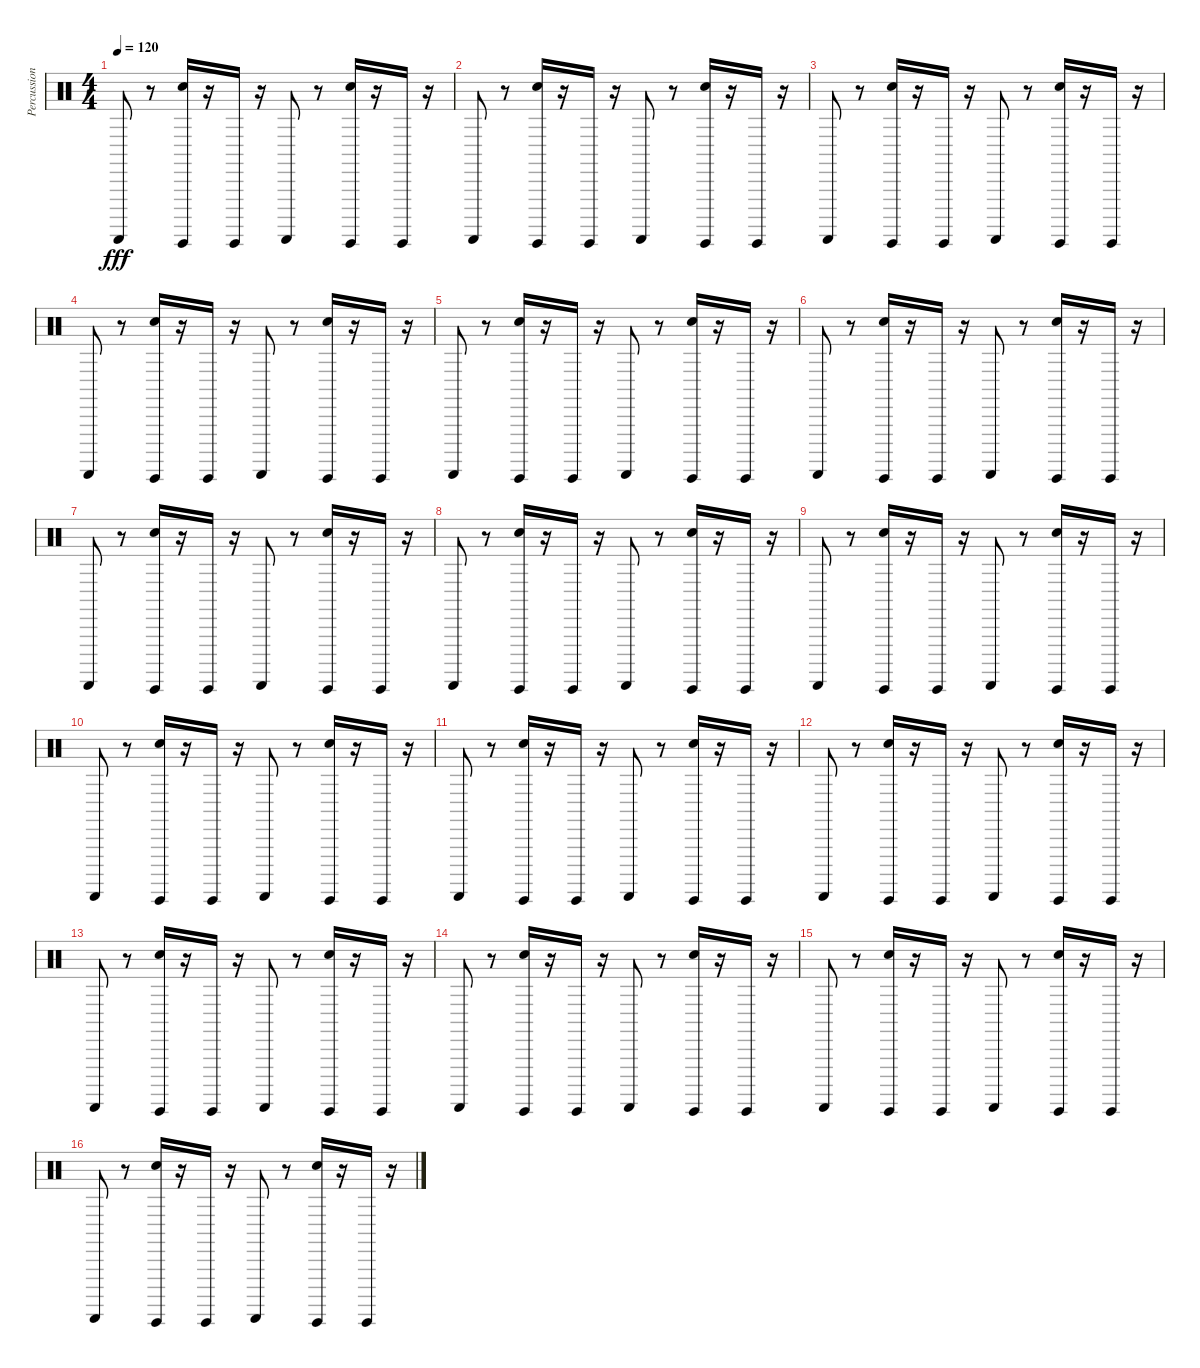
\track ("Percussions" "Percussion") {instrument percussion}
\staff {score}
\articulation defaults
\ts (4 4)
\tempo 120
\clef neutral
\ks c "Guiro (scrap-return)".8{dy fff}
r.8 ("Guiro (hit)" "Hand Clap (hit)").16 r.16 "Guiro (hit)".16 r.16 "Guiro (scrap-return)".8 r.8 ("Guiro (hit)" "Hand Clap (hit)").16 r.16 "Guiro (hit)".16 r.16 |
"Guiro (scrap-return)".8 r.8 ("Guiro (hit)" "Hand Clap (hit)").16 r.16 "Guiro (hit)".16 r.16 "Guiro (scrap-return)".8 r.8 ("Guiro (hit)" "Hand Clap (hit)").16 r.16 "Guiro (hit)".16 r.16 |
"Guiro (scrap-return)".8 r.8 ("Guiro (hit)" "Hand Clap (hit)").16 r.16 "Guiro (hit)".16 r.16 "Guiro (scrap-return)".8 r.8 ("Guiro (hit)" "Hand Clap (hit)").16 r.16 "Guiro (hit)".16 r.16 |
"Guiro (scrap-return)".8 r.8 ("Guiro (hit)" "Hand Clap (hit)").16 r.16 "Guiro (hit)".16 r.16 "Guiro (scrap-return)".8 r.8 ("Guiro (hit)" "Hand Clap (hit)").16 r.16 "Guiro (hit)".16 r.16 |
"Guiro (scrap-return)".8 r.8 ("Guiro (hit)" "Hand Clap (hit)").16 r.16 "Guiro (hit)".16 r.16 "Guiro (scrap-return)".8 r.8 ("Guiro (hit)" "Hand Clap (hit)").16 r.16 "Guiro (hit)".16 r.16 |
"Guiro (scrap-return)".8 r.8 ("Guiro (hit)" "Hand Clap (hit)").16 r.16 "Guiro (hit)".16 r.16 "Guiro (scrap-return)".8 r.8 ("Guiro (hit)" "Hand Clap (hit)").16 r.16 "Guiro (hit)".16 r.16 |
"Guiro (scrap-return)".8 r.8 ("Guiro (hit)" "Hand Clap (hit)").16 r.16 "Guiro (hit)".16 r.16 "Guiro (scrap-return)".8 r.8 ("Guiro (hit)" "Hand Clap (hit)").16 r.16 "Guiro (hit)".16 r.16 |
"Guiro (scrap-return)".8 r.8 ("Guiro (hit)" "Hand Clap (hit)").16 r.16 "Guiro (hit)".16 r.16 "Guiro (scrap-return)".8 r.8 ("Guiro (hit)" "Hand Clap (hit)").16 r.16 "Guiro (hit)".16 r.16 |
"Guiro (scrap-return)".8 r.8 ("Guiro (hit)" "Hand Clap (hit)").16 r.16 "Guiro (hit)".16 r.16 "Guiro (scrap-return)".8 r.8 ("Guiro (hit)" "Hand Clap (hit)").16 r.16 "Guiro (hit)".16 r.16 |
"Guiro (scrap-return)".8 r.8 ("Guiro (hit)" "Hand Clap (hit)").16 r.16 "Guiro (hit)".16 r.16 "Guiro (scrap-return)".8 r.8 ("Guiro (hit)" "Hand Clap (hit)").16 r.16 "Guiro (hit)".16 r.16 |
"Guiro (scrap-return)".8 r.8 ("Guiro (hit)" "Hand Clap (hit)").16 r.16 "Guiro (hit)".16 r.16 "Guiro (scrap-return)".8 r.8 ("Guiro (hit)" "Hand Clap (hit)").16 r.16 "Guiro (hit)".16 r.16 |
"Guiro (scrap-return)".8 r.8 ("Guiro (hit)" "Hand Clap (hit)").16 r.16 "Guiro (hit)".16 r.16 "Guiro (scrap-return)".8 r.8 ("Guiro (hit)" "Hand Clap (hit)").16 r.16 "Guiro (hit)".16 r.16 |
"Guiro (scrap-return)".8 r.8 ("Guiro (hit)" "Hand Clap (hit)").16 r.16 "Guiro (hit)".16 r.16 "Guiro (scrap-return)".8 r.8 ("Guiro (hit)" "Hand Clap (hit)").16 r.16 "Guiro (hit)".16 r.16 |
"Guiro (scrap-return)".8 r.8 ("Guiro (hit)" "Hand Clap (hit)").16 r.16 "Guiro (hit)".16 r.16 "Guiro (scrap-return)".8 r.8 ("Guiro (hit)" "Hand Clap (hit)").16 r.16 "Guiro (hit)".16 r.16 |
"Guiro (scrap-return)".8 r.8 ("Guiro (hit)" "Hand Clap (hit)").16 r.16 "Guiro (hit)".16 r.16 "Guiro (scrap-return)".8 r.8 ("Guiro (hit)" "Hand Clap (hit)").16 r.16 "Guiro (hit)".16 r.16 |
"Guiro (scrap-return)".8 r.8 ("Guiro (hit)" "Hand Clap (hit)").16 r.16 "Guiro (hit)".16 r.16 "Guiro (scrap-return)".8 r.8 ("Guiro (hit)" "Hand Clap (hit)").16 r.16 "Guiro (hit)".16 r.16
